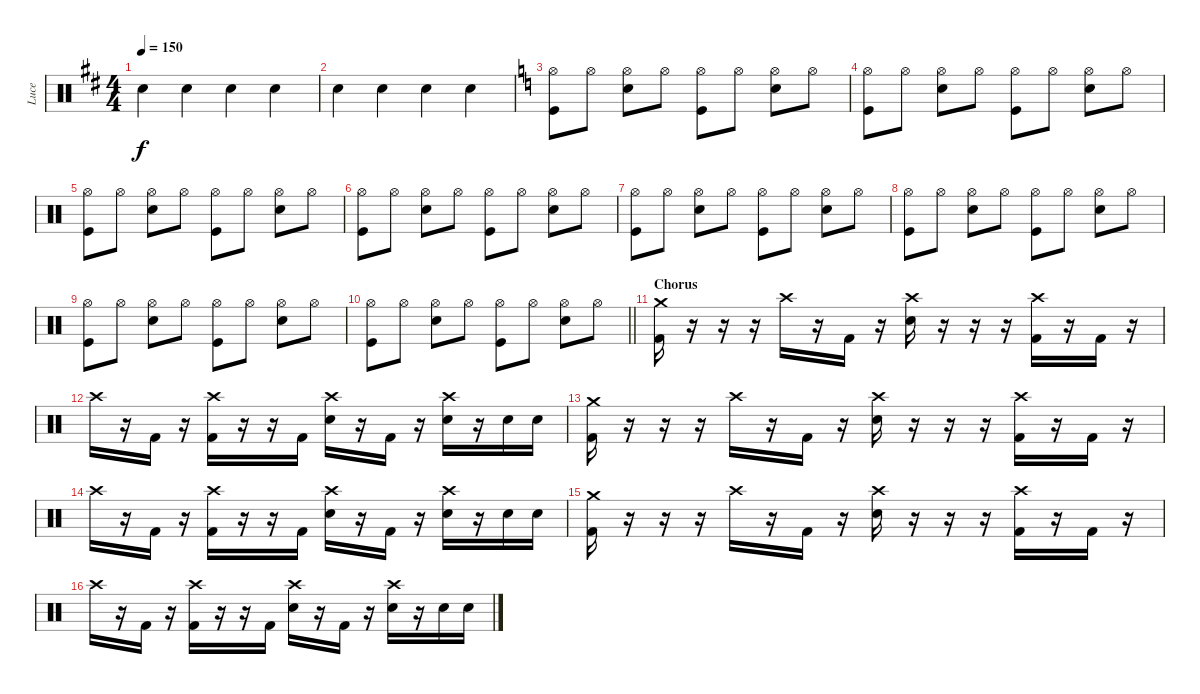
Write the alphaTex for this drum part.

\track ("Luce" "Luce") {instrument percussion}
\staff {score}
\articulation defaults
\ts (4 4)
\tempo 150
\clef neutral
\ks d "Snare (hit) 2".4{dy f} "Snare (hit) 2".4 "Snare (hit) 2".4 "Snare (hit) 2".4
|
"Snare (hit) 2".4 "Snare (hit) 2".4 "Snare (hit) 2".4 "Snare (hit) 2".4 |
\ks c
("Hi-Hat (open)" "Kick (hit)").8 "Hi-Hat (open)".8 ("Hi-Hat (open)" "Snare (hit) 2").8 "Hi-Hat (open)".8 ("Hi-Hat (open)" "Kick (hit)").8 "Hi-Hat (open)".8 ("Hi-Hat (open)" "Snare (hit) 2").8 "Hi-Hat (open)".8 |
("Hi-Hat (open)" "Kick (hit)").8 "Hi-Hat (open)".8 ("Hi-Hat (open)" "Snare (hit) 2").8 "Hi-Hat (open)".8 ("Hi-Hat (open)" "Kick (hit)").8 "Hi-Hat (open)".8 ("Hi-Hat (open)" "Snare (hit) 2").8 "Hi-Hat (open)".8 |
("Hi-Hat (open)" "Kick (hit)").8 "Hi-Hat (open)".8 ("Hi-Hat (open)" "Snare (hit) 2").8 "Hi-Hat (open)".8 ("Hi-Hat (open)" "Kick (hit)").8 "Hi-Hat (open)".8 ("Hi-Hat (open)" "Snare (hit) 2").8 "Hi-Hat (open)".8 |
("Hi-Hat (open)" "Kick (hit)").8 "Hi-Hat (open)".8 ("Hi-Hat (open)" "Snare (hit) 2").8 "Hi-Hat (open)".8 ("Hi-Hat (open)" "Kick (hit)").8 "Hi-Hat (open)".8 ("Hi-Hat (open)" "Snare (hit) 2").8 "Hi-Hat (open)".8 |
("Hi-Hat (open)" "Kick (hit)").8 "Hi-Hat (open)".8 ("Hi-Hat (open)" "Snare (hit) 2").8 "Hi-Hat (open)".8 ("Hi-Hat (open)" "Kick (hit)").8 "Hi-Hat (open)".8 ("Hi-Hat (open)" "Snare (hit) 2").8 "Hi-Hat (open)".8 |
("Hi-Hat (open)" "Kick (hit)").8 "Hi-Hat (open)".8 ("Hi-Hat (open)" "Snare (hit) 2").8 "Hi-Hat (open)".8 ("Hi-Hat (open)" "Kick (hit)").8 "Hi-Hat (open)".8 ("Hi-Hat (open)" "Snare (hit) 2").8 "Hi-Hat (open)".8 |
("Hi-Hat (open)" "Kick (hit)").8 "Hi-Hat (open)".8 ("Hi-Hat (open)" "Snare (hit) 2").8 "Hi-Hat (open)".8 ("Hi-Hat (open)" "Kick (hit)").8 "Hi-Hat (open)".8 ("Hi-Hat (open)" "Snare (hit) 2").8 "Hi-Hat (open)".8 |
\barLineRight lightlight
("Hi-Hat (open)" "Kick (hit)").8 "Hi-Hat (open)".8 ("Hi-Hat (open)" "Snare (hit) 2").8 "Hi-Hat (open)".8 ("Hi-Hat (open)" "Kick (hit)").8 "Hi-Hat (open)".8 ("Hi-Hat (open)" "Snare (hit) 2").8 "Hi-Hat (open)".8 |
\section ("" "Chorus")
("Crash medium (hit)" "Kick (hit) 2").16 r.16 r.16 r.16 "Crash high (hit)".16 r.16 "Kick (hit) 2".16 r.16 ("Crash high (hit)" "Electric Snare (hit)").16 r.16 r.16 r.16 ("Crash high (hit)" "Kick (hit) 2").16 r.16 "Kick (hit) 2".16 r.16 |
"Crash high (hit)".16 r.16 "Kick (hit) 2".16 r.16 ("Crash high (hit)" "Kick (hit) 2").16 r.16 r.16 "Kick (hit) 2".16 ("Crash high (hit)" "Electric Snare (hit)").16 r.16 "Kick (hit) 2".16 r.16 ("Crash high (hit)" "Electric Snare (hit)").16 r.16 "Electric Snare (hit)".16 "Electric Snare (hit)".16 |
("Crash medium (hit)" "Kick (hit) 2").16 r.16 r.16 r.16 "Crash high (hit)".16 r.16 "Kick (hit) 2".16 r.16 ("Crash high (hit)" "Electric Snare (hit)").16 r.16 r.16 r.16 ("Crash high (hit)" "Kick (hit) 2").16 r.16 "Kick (hit) 2".16 r.16 |
"Crash high (hit)".16 r.16 "Kick (hit) 2".16 r.16 ("Crash high (hit)" "Kick (hit) 2").16 r.16 r.16 "Kick (hit) 2".16 ("Crash high (hit)" "Electric Snare (hit)").16 r.16 "Kick (hit) 2".16 r.16 ("Crash high (hit)" "Electric Snare (hit)").16 r.16 "Electric Snare (hit)".16 "Electric Snare (hit)".16 |
("Crash medium (hit)" "Kick (hit) 2").16 r.16 r.16 r.16 "Crash high (hit)".16 r.16 "Kick (hit) 2".16 r.16 ("Crash high (hit)" "Electric Snare (hit)").16 r.16 r.16 r.16 ("Crash high (hit)" "Kick (hit) 2").16 r.16 "Kick (hit) 2".16 r.16 |
"Crash high (hit)".16 r.16 "Kick (hit) 2".16 r.16 ("Crash high (hit)" "Kick (hit) 2").16 r.16 r.16 "Kick (hit) 2".16 ("Crash high (hit)" "Electric Snare (hit)").16 r.16 "Kick (hit) 2".16 r.16 ("Crash high (hit)" "Electric Snare (hit)").16 r.16 "Electric Snare (hit)".16 "Electric Snare (hit)".16
